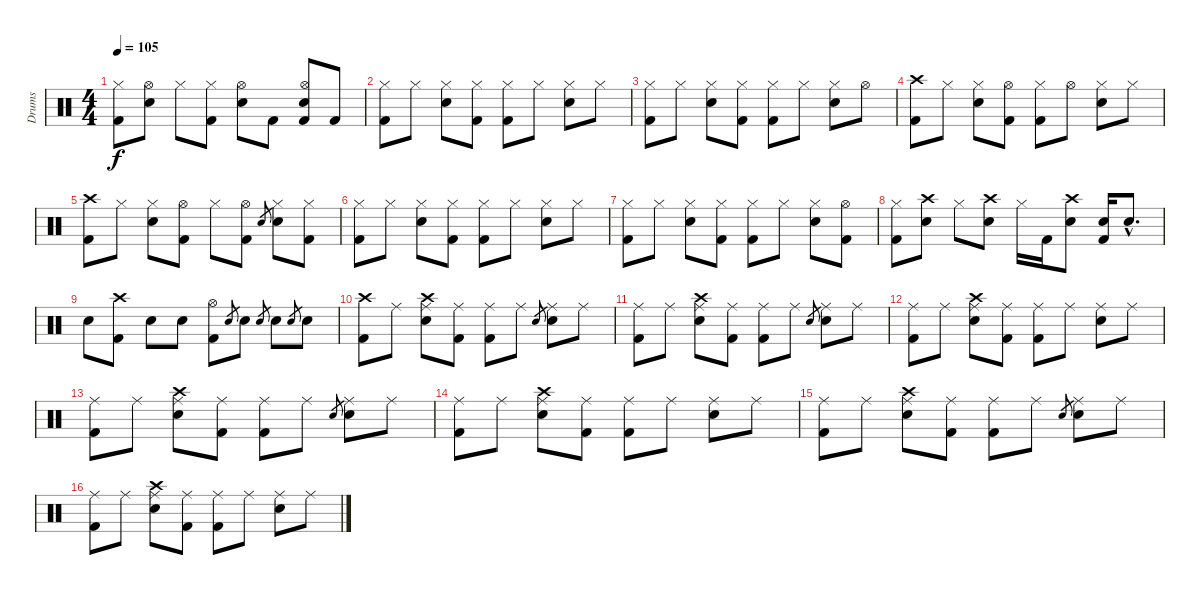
\track ("Drums" "Drums") {instrument percussion}
\staff {score}
\articulation defaults
\ts (4 4)
\tempo 105
\clef neutral
\ks c
("Hi-Hat (closed)" "Kick (hit) 2").8{dy f} ("Hi-Hat (open)" "Electric Snare (hit)").8 "Hi-Hat (closed)".8 ("Hi-Hat (closed)" "Kick (hit) 2").8 ("Hi-Hat (open)" "Electric Snare (hit)").8 "Kick (hit) 2".8 ("Hi-Hat (open)" "Electric Snare (hit)" "Kick (hit) 2").8 "Kick (hit) 2".8 |
("Hi-Hat (closed)" "Kick (hit) 2").8 "Hi-Hat (closed)".8 ("Hi-Hat (closed)" "Electric Snare (hit)").8 ("Hi-Hat (closed)" "Kick (hit) 2").8 ("Hi-Hat (closed)" "Kick (hit) 2").8 "Hi-Hat (closed)".8 ("Hi-Hat (closed)" "Electric Snare (hit)").8 "Hi-Hat (closed)".8 |
("Hi-Hat (closed)" "Kick (hit) 2").8 "Hi-Hat (closed)".8 ("Hi-Hat (closed)" "Electric Snare (hit)").8 ("Hi-Hat (closed)" "Kick (hit) 2").8 ("Hi-Hat (closed)" "Kick (hit) 2").8 "Hi-Hat (closed)".8 ("Hi-Hat (closed)" "Electric Snare (hit)").8 "Hi-Hat (open)".8 |
("Crash high (hit)" "Kick (hit) 2").8 "Hi-Hat (closed)".8 ("Hi-Hat (closed)" "Electric Snare (hit)").8 ("Hi-Hat (open)" "Kick (hit) 2").8 ("Hi-Hat (closed)" "Kick (hit) 2").8 "Hi-Hat (open)".8 ("Hi-Hat (closed)" "Electric Snare (hit)").8 "Hi-Hat (closed)".8 |
("Crash high (hit)" "Kick (hit) 2").8 "Hi-Hat (closed)".8 ("Hi-Hat (closed)" "Electric Snare (hit)").8 ("Hi-Hat (open)" "Kick (hit) 2").8 "Hi-Hat (closed)".8 ("Hi-Hat (open)" "Kick (hit) 2").8 "Electric Snare (hit)".8{gr} ("Hi-Hat (closed)" "Electric Snare (hit)").8 ("Hi-Hat (closed)" "Kick (hit) 2").8 |
("Hi-Hat (closed)" "Kick (hit) 2").8 "Hi-Hat (closed)".8 ("Hi-Hat (closed)" "Electric Snare (hit)").8 ("Hi-Hat (closed)" "Kick (hit) 2").8 ("Hi-Hat (closed)" "Kick (hit) 2").8 "Hi-Hat (closed)".8 ("Hi-Hat (closed)" "Electric Snare (hit)").8 "Hi-Hat (closed)".8 |
("Hi-Hat (closed)" "Kick (hit) 2").8 "Hi-Hat (closed)".8 ("Hi-Hat (closed)" "Electric Snare (hit)").8 ("Hi-Hat (closed)" "Kick (hit) 2").8 ("Hi-Hat (closed)" "Kick (hit) 2").8 "Hi-Hat (closed)".8 ("Hi-Hat (closed)" "Electric Snare (hit)").8 ("Hi-Hat (open)" "Kick (hit) 2").8 |
("Hi-Hat (closed)" "Kick (hit) 2").8 ("Crash high (hit)" "Electric Snare (hit)").8 "Hi-Hat (closed)".8 ("Crash high (hit)" "Electric Snare (hit)").8 "Hi-Hat (closed)".16 "Kick (hit) 2".16 ("Crash high (hit)" "Electric Snare (hit)").8 ("Electric Snare (hit)" "Kick (hit) 2").16 "Electric Snare (hit)"{hac}.8{d} |
"Electric Snare (hit)".8 ("Crash high (hit)" "Kick (hit) 2").8 "Electric Snare (hit)".8 "Electric Snare (hit)".8 ("Hi-Hat (open)" "Kick (hit) 2").8 "Electric Snare (hit)".8{gr} "Electric Snare (hit)".8 "Electric Snare (hit)".8{gr} "Electric Snare (hit)".8 "Electric Snare (hit)".8{gr} "Electric Snare (hit)".8 |
("Crash high (hit)" "Kick (hit) 2").8 "Ride (middle)".8 ("Crash high (hit)" "Ride (middle)" "Electric Snare (hit)").8 ("Ride (middle)" "Kick (hit) 2").8 ("Ride (middle)" "Kick (hit) 2").8 "Ride (middle)".8 "Electric Snare (hit)".8{gr} ("Ride (middle)" "Electric Snare (hit)").8 "Ride (middle)".8 |
("Ride (middle)" "Kick (hit) 2").8 "Ride (middle)".8 ("Crash high (hit)" "Ride (middle)" "Electric Snare (hit)").8 ("Ride (middle)" "Kick (hit) 2").8 ("Ride (middle)" "Kick (hit) 2").8 "Ride (middle)".8 "Electric Snare (hit)".8{gr} ("Ride (middle)" "Electric Snare (hit)").8 "Ride (middle)".8 |
("Ride (middle)" "Kick (hit) 2").8 "Ride (middle)".8 ("Crash high (hit)" "Ride (middle)" "Electric Snare (hit)").8 ("Ride (middle)" "Kick (hit) 2").8 ("Ride (middle)" "Kick (hit) 2").8 "Ride (middle)".8 ("Ride (middle)" "Electric Snare (hit)").8 "Ride (middle)".8 |
("Ride (middle)" "Kick (hit) 2").8 "Ride (middle)".8 ("Crash high (hit)" "Ride (middle)" "Electric Snare (hit)").8 ("Ride (middle)" "Kick (hit) 2").8 ("Ride (middle)" "Kick (hit) 2").8 "Ride (middle)".8 "Electric Snare (hit)".8{gr} ("Ride (middle)" "Electric Snare (hit)").8 "Ride (middle)".8 |
("Ride (middle)" "Kick (hit) 2").8 "Ride (middle)".8 ("Crash high (hit)" "Ride (middle)" "Electric Snare (hit)").8 ("Ride (middle)" "Kick (hit) 2").8 ("Ride (middle)" "Kick (hit) 2").8 "Ride (middle)".8 ("Ride (middle)" "Electric Snare (hit)").8 "Ride (middle)".8 |
("Ride (middle)" "Kick (hit) 2").8 "Ride (middle)".8 ("Crash high (hit)" "Ride (middle)" "Electric Snare (hit)").8 ("Ride (middle)" "Kick (hit) 2").8 ("Ride (middle)" "Kick (hit) 2").8 "Ride (middle)".8 "Electric Snare (hit)".8{gr} ("Ride (middle)" "Electric Snare (hit)").8 "Ride (middle)".8 |
("Ride (middle)" "Kick (hit) 2").8 "Ride (middle)".8 ("Crash high (hit)" "Ride (middle)" "Electric Snare (hit)").8 ("Ride (middle)" "Kick (hit) 2").8 ("Ride (middle)" "Kick (hit) 2").8 "Ride (middle)".8 ("Ride (middle)" "Electric Snare (hit)").8 "Ride (middle)".8
